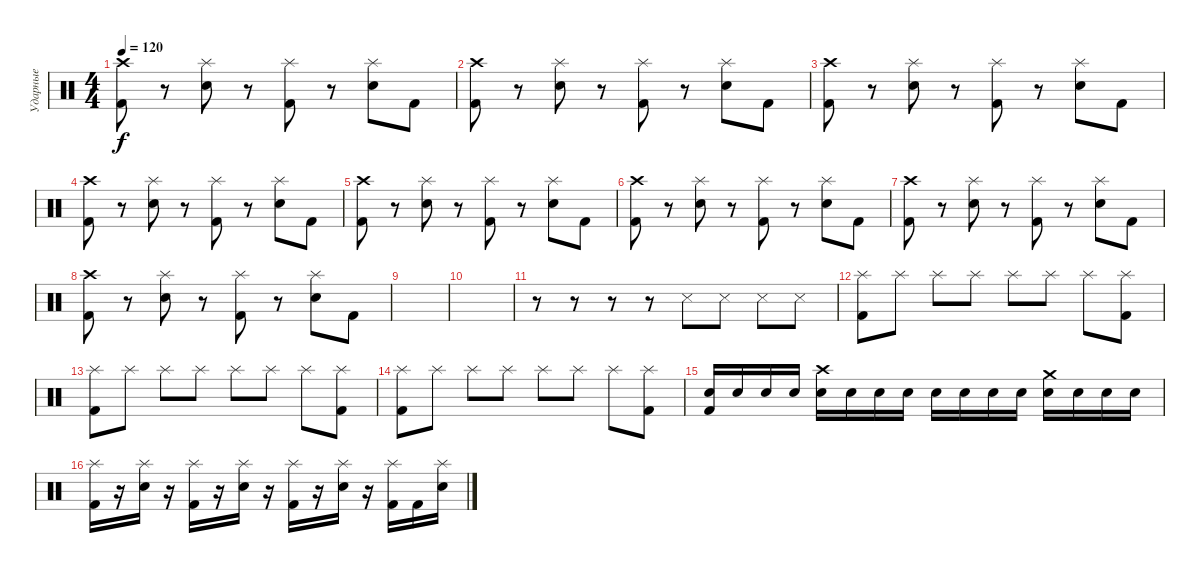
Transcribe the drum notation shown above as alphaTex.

\track ("Ударные" "Ударные") {instrument percussion}
\staff {score}
\articulation defaults
\ts (4 4)
\tempo 120
\clef neutral
\ks c
("Crash high (hit)" "Kick (hit) 2").8{dy f} r.8 ("Splash (hit)" "Electric Snare (hit)").8 r.8 ("Splash (hit)" "Kick (hit) 2").8 r.8 ("Splash (hit)" "Electric Snare (hit)").8 "Kick (hit) 2".8 |
("Crash high (hit)" "Kick (hit) 2").8 r.8 ("Splash (hit)" "Electric Snare (hit)").8 r.8 ("Splash (hit)" "Kick (hit) 2").8 r.8 ("Splash (hit)" "Electric Snare (hit)").8 "Kick (hit) 2".8 |
("Crash high (hit)" "Kick (hit) 2").8 r.8 ("Splash (hit)" "Electric Snare (hit)").8 r.8 ("Splash (hit)" "Kick (hit) 2").8 r.8 ("Splash (hit)" "Electric Snare (hit)").8 "Kick (hit) 2".8 |
("Crash high (hit)" "Kick (hit) 2").8 r.8 ("Splash (hit)" "Electric Snare (hit)").8 r.8 ("Splash (hit)" "Kick (hit) 2").8 r.8 ("Splash (hit)" "Electric Snare (hit)").8 "Kick (hit) 2".8 |
("Crash high (hit)" "Kick (hit) 2").8 r.8 ("Splash (hit)" "Electric Snare (hit)").8 r.8 ("Splash (hit)" "Kick (hit) 2").8 r.8 ("Splash (hit)" "Electric Snare (hit)").8 "Kick (hit) 2".8 |
("Crash high (hit)" "Kick (hit) 2").8 r.8 ("Splash (hit)" "Electric Snare (hit)").8 r.8 ("Splash (hit)" "Kick (hit) 2").8 r.8 ("Splash (hit)" "Electric Snare (hit)").8 "Kick (hit) 2".8 |
("Crash high (hit)" "Kick (hit) 2").8 r.8 ("Splash (hit)" "Electric Snare (hit)").8 r.8 ("Splash (hit)" "Kick (hit) 2").8 r.8 ("Splash (hit)" "Electric Snare (hit)").8 "Kick (hit) 2".8 |
("Crash high (hit)" "Kick (hit) 2").8 r.8 ("Splash (hit)" "Electric Snare (hit)").8 r.8 ("Splash (hit)" "Kick (hit) 2").8 r.8 ("Splash (hit)" "Electric Snare (hit)").8 "Kick (hit) 2".8 |
|
|
r.8 r.8 r.8 r.8 "Metronome (hit)".8 "Metronome (hit)".8 "Metronome (hit)".8 "Metronome (hit)".8 |
("Splash (hit)" "Kick (hit) 2").8 "Splash (hit)".8 "Splash (hit)".8 "Splash (hit)".8 "Splash (hit)".8 "Splash (hit)".8 "Splash (hit)".8 ("Splash (hit)" "Kick (hit) 2").8 |
("Splash (hit)" "Kick (hit) 2").8 "Splash (hit)".8 "Splash (hit)".8 "Splash (hit)".8 "Splash (hit)".8 "Splash (hit)".8 "Splash (hit)".8 ("Splash (hit)" "Kick (hit) 2").8 |
("Splash (hit)" "Kick (hit) 2").8 "Splash (hit)".8 "Splash (hit)".8 "Splash (hit)".8 "Splash (hit)".8 "Splash (hit)".8 "Splash (hit)".8 ("Splash (hit)" "Kick (hit) 2").8 |
("Electric Snare (hit)" "Kick (hit) 2").16 "Electric Snare (hit)".16 "Electric Snare (hit)".16 "Electric Snare (hit)".16 ("Crash high (hit)" "Electric Snare (hit)").16 "Electric Snare (hit)".16 "Electric Snare (hit)".16 "Electric Snare (hit)".16 "Electric Snare (hit)".16 "Electric Snare (hit)".16 "Electric Snare (hit)".16 "Electric Snare (hit)".16 ("Crash medium (hit)" "Electric Snare (hit)").16 "Electric Snare (hit)".16 "Electric Snare (hit)".16 "Electric Snare (hit)".16 |
("Splash (hit)" "Kick (hit) 2").16 r.16 ("Splash (hit)" "Electric Snare (hit)").16 r.16 ("Splash (hit)" "Kick (hit) 2").16 r.16 ("Splash (hit)" "Electric Snare (hit)").16 r.16 ("Splash (hit)" "Kick (hit) 2").16 r.16 ("Splash (hit)" "Electric Snare (hit)").16 r.16 ("Splash (hit)" "Kick (hit) 2").16 "Kick (hit) 2".16 ("Splash (hit)" "Electric Snare (hit)").16
